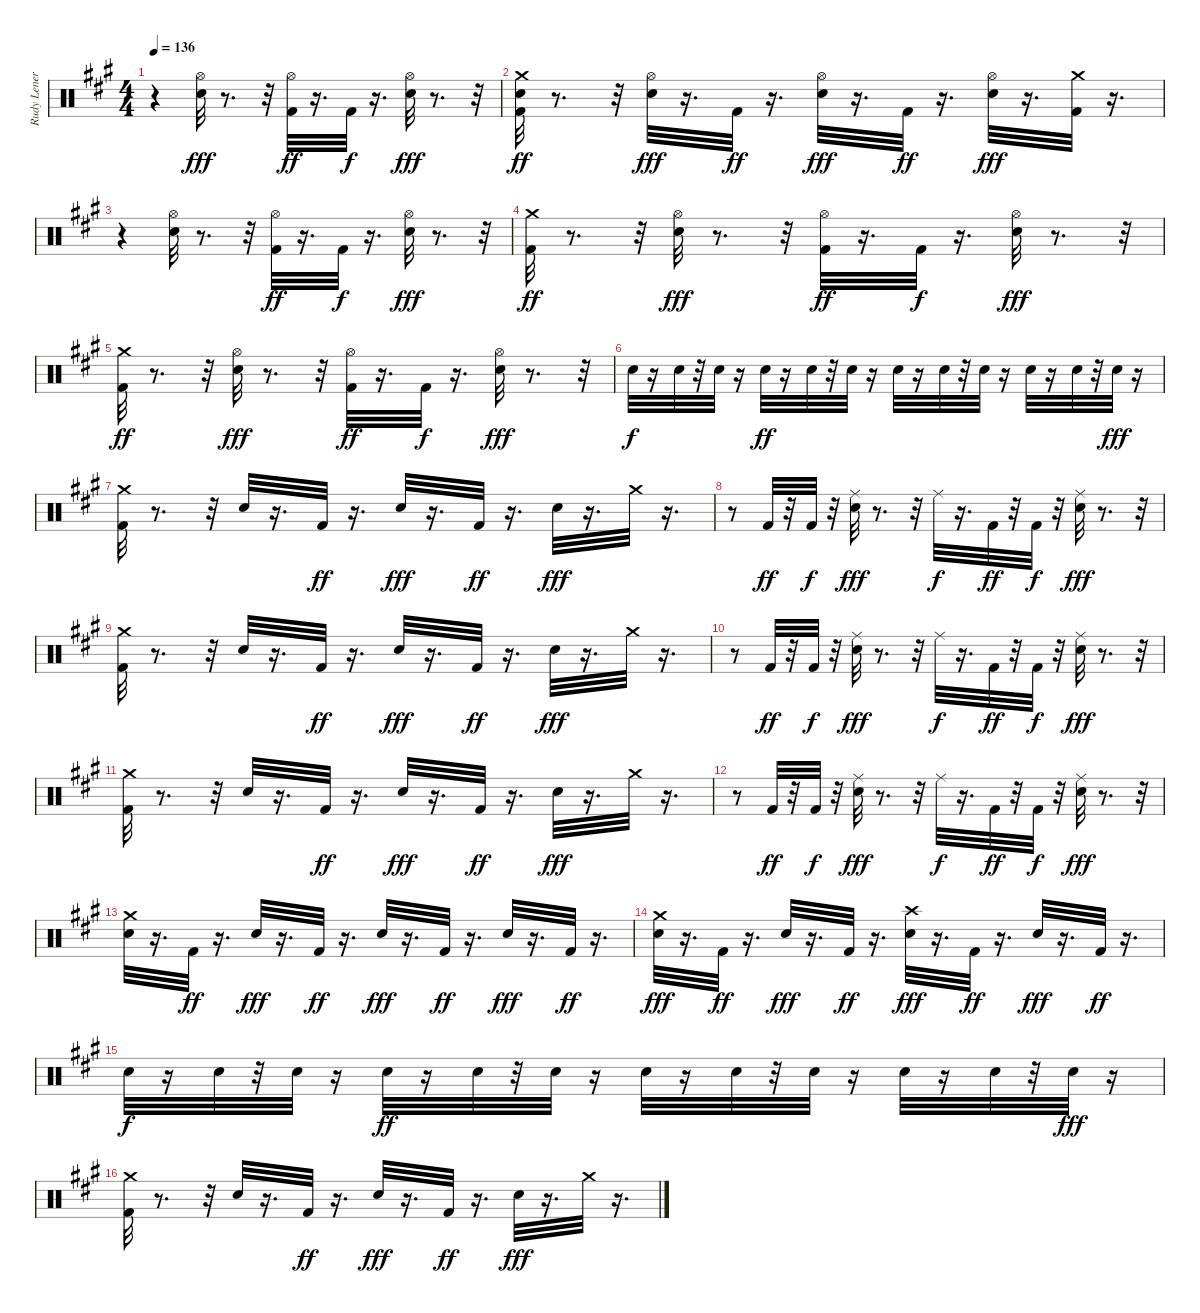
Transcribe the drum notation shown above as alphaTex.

\track ("Rudy Leners" "Rudy Lener") {instrument percussion}
\staff {score}
\articulation defaults
\ts (4 4)
\tempo 136
\clef neutral
\ks a
r.4{dy fff} ("Hi-Hat (open)" "Snare (hit) 2").32 r.8{d} r.32 ("Hi-Hat (open)" "Kick (hit) 2").32{dy ff} r.16{d} "Kick (hit) 2".32{dy f} r.16{d} ("Hi-Hat (open)" "Snare (hit) 2").32{dy fff} r.8{d} r.32 |
("Snare (hit) 2" "Crash medium (hit)" "Kick (hit) 2").32{dy ff} r.8{d} r.32 ("Hi-Hat (open)" "Snare (hit) 2").32{dy fff} r.16{d} "Kick (hit) 2".32{dy ff} r.16{d} ("Hi-Hat (open)" "Snare (hit) 2").32{dy fff} r.16{d} "Kick (hit) 2".32{dy ff} r.16{d} ("Hi-Hat (open)" "Snare (hit) 2").32{dy fff} r.16{d} ("Kick (hit) 2" "Crash medium (hit)").32 r.16{d} |
r.4 ("Hi-Hat (open)" "Snare (hit) 2").32 r.8{d} r.32 ("Hi-Hat (open)" "Kick (hit) 2").32{dy ff} r.16{d} "Kick (hit) 2".32{dy f} r.16{d} ("Hi-Hat (open)" "Snare (hit) 2").32{dy fff} r.8{d} r.32 |
("Crash medium (hit)" "Kick (hit) 2").32{dy ff} r.8{d} r.32 ("Hi-Hat (open)" "Snare (hit) 2").32{dy fff} r.8{d} r.32 ("Hi-Hat (open)" "Kick (hit) 2").32{dy ff} r.16{d} "Kick (hit) 2".32{dy f} r.16{d} ("Hi-Hat (open)" "Snare (hit) 2").32{dy fff} r.8{d} r.32 |
("Crash medium (hit)" "Kick (hit) 2").32{dy ff} r.8{d} r.32 ("Hi-Hat (open)" "Snare (hit) 2").32{dy fff} r.8{d} r.32 ("Hi-Hat (open)" "Kick (hit) 2").32{dy ff} r.16{d} "Kick (hit) 2".32{dy f} r.16{d} ("Hi-Hat (open)" "Snare (hit) 2").32{dy fff} r.8{d} r.32 |
"Snare (hit) 2".32{dy f} r.16 "Snare (hit) 2".32 r.32 "Snare (hit) 2".32 r.16 "Snare (hit) 2".32{dy ff} r.16 "Snare (hit) 2".32 r.32 "Snare (hit) 2".32 r.16 "Snare (hit) 2".32 r.16 "Snare (hit) 2".32 r.32 "Snare (hit) 2".32 r.16 "Snare (hit) 2".32 r.16 "Snare (hit) 2".32 r.32 "Snare (hit) 2".32{dy fff} r.16 |
("Kick (hit) 2" "Crash medium (hit)").32 r.8{d} r.32 "Snare (hit) 2".32 r.16{d} "Kick (hit) 2".32{dy ff} r.16{d} "Snare (hit) 2".32{dy fff} r.16{d} "Kick (hit) 2".32{dy ff} r.16{d} "Snare (hit) 2".32{dy fff} r.16{d} "Crash medium (hit)".32 r.16{d} |
r.8 "Kick (hit) 2".32{dy ff} r.32 "Kick (hit) 2".32{dy f} r.32 ("Ride (middle)" "Snare (hit) 2").32{dy fff} r.8{d} r.32 "Ride (middle)".32{dy f} r.16{d} "Kick (hit) 2".32{dy ff} r.32 "Kick (hit) 2".32{dy f} r.32 ("Ride (middle)" "Snare (hit) 2").32{dy fff} r.8{d} r.32 |
("Kick (hit) 2" "Crash medium (hit)").32 r.8{d} r.32 "Snare (hit) 2".32 r.16{d} "Kick (hit) 2".32{dy ff} r.16{d} "Snare (hit) 2".32{dy fff} r.16{d} "Kick (hit) 2".32{dy ff} r.16{d} "Snare (hit) 2".32{dy fff} r.16{d} "Crash medium (hit)".32 r.16{d} |
r.8 "Kick (hit) 2".32{dy ff} r.32 "Kick (hit) 2".32{dy f} r.32 ("Ride (middle)" "Snare (hit) 2").32{dy fff} r.8{d} r.32 "Ride (middle)".32{dy f} r.16{d} "Kick (hit) 2".32{dy ff} r.32 "Kick (hit) 2".32{dy f} r.32 ("Ride (middle)" "Snare (hit) 2").32{dy fff} r.8{d} r.32 |
("Kick (hit) 2" "Crash medium (hit)").32 r.8{d} r.32 "Snare (hit) 2".32 r.16{d} "Kick (hit) 2".32{dy ff} r.16{d} "Snare (hit) 2".32{dy fff} r.16{d} "Kick (hit) 2".32{dy ff} r.16{d} "Snare (hit) 2".32{dy fff} r.16{d} "Crash medium (hit)".32 r.16{d} |
r.8 "Kick (hit) 2".32{dy ff} r.32 "Kick (hit) 2".32{dy f} r.32 ("Ride (middle)" "Snare (hit) 2").32{dy fff} r.8{d} r.32 "Ride (middle)".32{dy f} r.16{d} "Kick (hit) 2".32{dy ff} r.32 "Kick (hit) 2".32{dy f} r.32 ("Ride (middle)" "Snare (hit) 2").32{dy fff} r.8{d} r.32 |
("Crash medium (hit)" "Snare (hit) 2").32 r.16{d} "Kick (hit) 2".32{dy ff} r.16{d} "Snare (hit) 2".32{dy fff} r.16{d} "Kick (hit) 2".32{dy ff} r.16{d} "Snare (hit) 2".32{dy fff} r.16{d} "Kick (hit) 2".32{dy ff} r.16{d} "Snare (hit) 2".32{dy fff} r.16{d} "Kick (hit) 2".32{dy ff} r.16{d} |
("Snare (hit) 2" "Crash medium (hit)").32{dy fff} r.16{d} "Kick (hit) 2".32{dy ff} r.16{d} "Snare (hit) 2".32{dy fff} r.16{d} "Kick (hit) 2".32{dy ff} r.16{d} ("Crash high (hit)" "Snare (hit) 2").32{dy fff} r.16{d} "Kick (hit) 2".32{dy ff} r.16{d} "Snare (hit) 2".32{dy fff} r.16{d} "Kick (hit) 2".32{dy ff} r.16{d} |
"Snare (hit) 2".32{dy f} r.16 "Snare (hit) 2".32 r.32 "Snare (hit) 2".32 r.16 "Snare (hit) 2".32{dy ff} r.16 "Snare (hit) 2".32 r.32 "Snare (hit) 2".32 r.16 "Snare (hit) 2".32 r.16 "Snare (hit) 2".32 r.32 "Snare (hit) 2".32 r.16 "Snare (hit) 2".32 r.16 "Snare (hit) 2".32 r.32 "Snare (hit) 2".32{dy fff} r.16 |
("Kick (hit) 2" "Crash medium (hit)").32 r.8{d} r.32 "Snare (hit) 2".32 r.16{d} "Kick (hit) 2".32{dy ff} r.16{d} "Snare (hit) 2".32{dy fff} r.16{d} "Kick (hit) 2".32{dy ff} r.16{d} "Snare (hit) 2".32{dy fff} r.16{d} "Crash medium (hit)".32 r.16{d}
